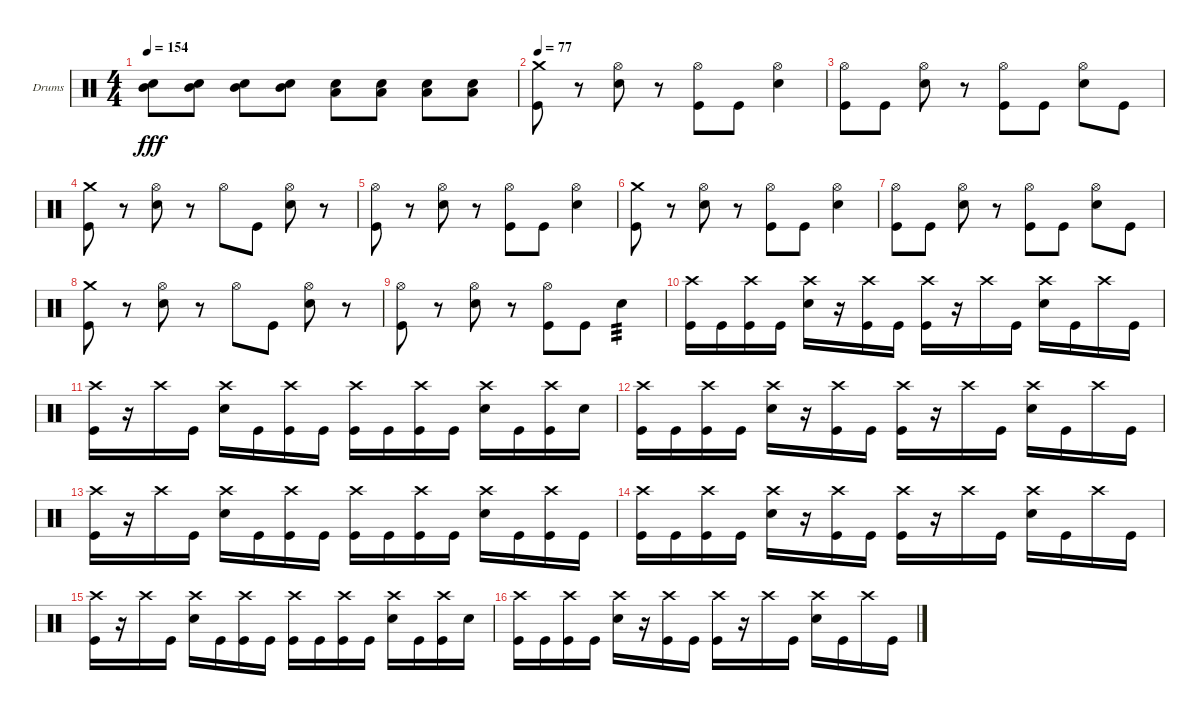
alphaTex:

\bracketExtendMode groupsimilarinstruments
\firstSystemTrackNameOrientation horizontal
\otherSystemsTrackNameOrientation horizontal
\track ("Drumkit" "Drums") {instrument percussion}
\staff {score}
\articulation defaults
\ts (4 4)
\tempo 154
\clef neutral
\ks c
("Mid Tom (hit)" "Snare (hit) 2").8{dy fff} ("Mid Tom (hit)" "Snare (hit) 2").8 ("Mid Tom (hit)" "Snare (hit) 2").8 ("Mid Tom (hit)" "Snare (hit) 2").8 ("Low Tom (hit)" "Snare (hit) 2").8 ("Low Tom (hit)" "Snare (hit) 2").8 ("Low Tom (hit)" "Snare (hit) 2").8 ("Low Tom (hit)" "Snare (hit) 2").8 |
\tempo 77
("Crash medium (hit)" "Kick (hit)").8 r.8 ("Hi-Hat (open)" "Snare (hit) 2").8 r.8 ("Hi-Hat (open)" "Kick (hit)").8 "Kick (hit)".8 ("Hi-Hat (open)" "Snare (hit) 2").4 |
("Hi-Hat (open)" "Kick (hit)").8 "Kick (hit)".8 ("Hi-Hat (open)" "Snare (hit) 2").8 r.8 ("Hi-Hat (open)" "Kick (hit)").8 "Kick (hit)".8 ("Hi-Hat (open)" "Snare (hit) 2").8 "Kick (hit)".8 |
("Crash medium (hit)" "Kick (hit)").8 r.8 ("Hi-Hat (open)" "Snare (hit) 2").8 r.8 "Hi-Hat (open)".8 "Kick (hit)".8 ("Hi-Hat (open)" "Snare (hit) 2").8 r.8 |
("Hi-Hat (open)" "Kick (hit)").8 r.8 ("Hi-Hat (open)" "Snare (hit) 2").8 r.8 ("Hi-Hat (open)" "Kick (hit)").8 "Kick (hit)".8 ("Hi-Hat (open)" "Snare (hit) 2").4 |
("Crash medium (hit)" "Kick (hit)").8 r.8 ("Hi-Hat (open)" "Snare (hit) 2").8 r.8 ("Hi-Hat (open)" "Kick (hit)").8 "Kick (hit)".8 ("Hi-Hat (open)" "Snare (hit) 2").4 |
("Hi-Hat (open)" "Kick (hit)").8 "Kick (hit)".8 ("Hi-Hat (open)" "Snare (hit) 2").8 r.8 ("Hi-Hat (open)" "Kick (hit)").8 "Kick (hit)".8 ("Hi-Hat (open)" "Snare (hit) 2").8 "Kick (hit)".8 |
("Crash medium (hit)" "Kick (hit)").8 r.8 ("Hi-Hat (open)" "Snare (hit) 2").8 r.8 "Hi-Hat (open)".8 "Kick (hit)".8 ("Hi-Hat (open)" "Snare (hit) 2").8 r.8 |
("Hi-Hat (open)" "Kick (hit)").8 r.8 ("Hi-Hat (open)" "Snare (hit) 2").8 r.8 ("Hi-Hat (open)" "Kick (hit)").8 "Kick (hit)".8 "Snare (hit) 2".4{tp 3} |
("Crash high (hit)" "Kick (hit)").16 "Kick (hit)".16 ("Crash high (hit)" "Kick (hit)").16 "Kick (hit)".16 ("Crash high (hit)" "Snare (hit) 2").16 r.16 ("Crash high (hit)" "Kick (hit)").16 "Kick (hit)".16 ("Crash high (hit)" "Kick (hit)").16 r.16 "Crash high (hit)".16 "Kick (hit)".16 ("Crash high (hit)" "Snare (hit) 2").16 "Kick (hit)".16 "Crash high (hit)".16 "Kick (hit)".16 |
("Crash high (hit)" "Kick (hit)").16 r.16 "Crash high (hit)".16 "Kick (hit)".16 ("Crash high (hit)" "Snare (hit) 2").16 "Kick (hit)".16 ("Crash high (hit)" "Kick (hit)").16 "Kick (hit)".16 ("Crash high (hit)" "Kick (hit)").16 "Kick (hit)".16 ("Crash high (hit)" "Kick (hit)").16 "Kick (hit)".16 ("Crash high (hit)" "Snare (hit) 2").16 "Kick (hit)".16 ("Crash high (hit)" "Kick (hit)").16 "Snare (hit) 2".16 |
("Crash high (hit)" "Kick (hit)").16 "Kick (hit)".16 ("Crash high (hit)" "Kick (hit)").16 "Kick (hit)".16 ("Crash high (hit)" "Snare (hit) 2").16 r.16 ("Crash high (hit)" "Kick (hit)").16 "Kick (hit)".16 ("Crash high (hit)" "Kick (hit)").16 r.16 "Crash high (hit)".16 "Kick (hit)".16 ("Crash high (hit)" "Snare (hit) 2").16 "Kick (hit)".16 "Crash high (hit)".16 "Kick (hit)".16 |
("Crash high (hit)" "Kick (hit)").16 r.16 "Crash high (hit)".16 "Kick (hit)".16 ("Crash high (hit)" "Snare (hit) 2").16 "Kick (hit)".16 ("Crash high (hit)" "Kick (hit)").16 "Kick (hit)".16 ("Crash high (hit)" "Kick (hit)").16 "Kick (hit)".16 ("Crash high (hit)" "Kick (hit)").16 "Kick (hit)".16 ("Crash high (hit)" "Snare (hit) 2").16 "Kick (hit)".16 ("Crash high (hit)" "Kick (hit)").16 "Kick (hit)".16 |
("Crash high (hit)" "Kick (hit)").16 "Kick (hit)".16 ("Crash high (hit)" "Kick (hit)").16 "Kick (hit)".16 ("Crash high (hit)" "Snare (hit) 2").16 r.16 ("Crash high (hit)" "Kick (hit)").16 "Kick (hit)".16 ("Crash high (hit)" "Kick (hit)").16 r.16 "Crash high (hit)".16 "Kick (hit)".16 ("Crash high (hit)" "Snare (hit) 2").16 "Kick (hit)".16 "Crash high (hit)".16 "Kick (hit)".16 |
("Crash high (hit)" "Kick (hit)").16 r.16 "Crash high (hit)".16 "Kick (hit)".16 ("Crash high (hit)" "Snare (hit) 2").16 "Kick (hit)".16 ("Crash high (hit)" "Kick (hit)").16 "Kick (hit)".16 ("Crash high (hit)" "Kick (hit)").16 "Kick (hit)".16 ("Crash high (hit)" "Kick (hit)").16 "Kick (hit)".16 ("Crash high (hit)" "Snare (hit) 2").16 "Kick (hit)".16 ("Crash high (hit)" "Kick (hit)").16 "Snare (hit) 2".16 |
("Crash high (hit)" "Kick (hit)").16 "Kick (hit)".16 ("Crash high (hit)" "Kick (hit)").16 "Kick (hit)".16 ("Crash high (hit)" "Snare (hit) 2").16 r.16 ("Crash high (hit)" "Kick (hit)").16 "Kick (hit)".16 ("Crash high (hit)" "Kick (hit)").16 r.16 "Crash high (hit)".16 "Kick (hit)".16 ("Crash high (hit)" "Snare (hit) 2").16 "Kick (hit)".16 "Crash high (hit)".16 "Kick (hit)".16
